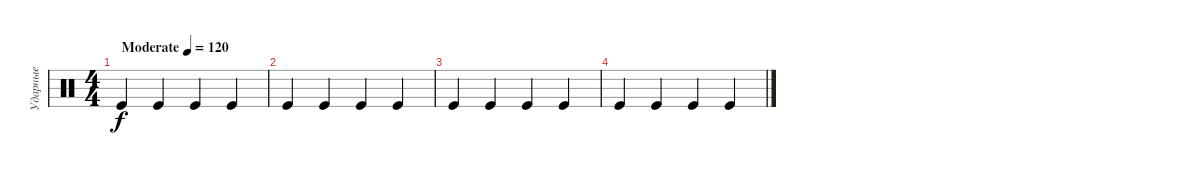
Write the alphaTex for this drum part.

\track ("Ударные" "Ударные") {instrument percussion}
\staff {score}
\articulation defaults
\ts (4 4)
\tempo (120 "Moderate")
\clef neutral
\ks c "Kick (hit)".4{dy f} "Kick (hit)".4 "Kick (hit)".4 "Kick (hit)".4
|
"Kick (hit)".4 "Kick (hit)".4 "Kick (hit)".4 "Kick (hit)".4 |
"Kick (hit)".4 "Kick (hit)".4 "Kick (hit)".4 "Kick (hit)".4 |
"Kick (hit)".4 "Kick (hit)".4 "Kick (hit)".4 "Kick (hit)".4
